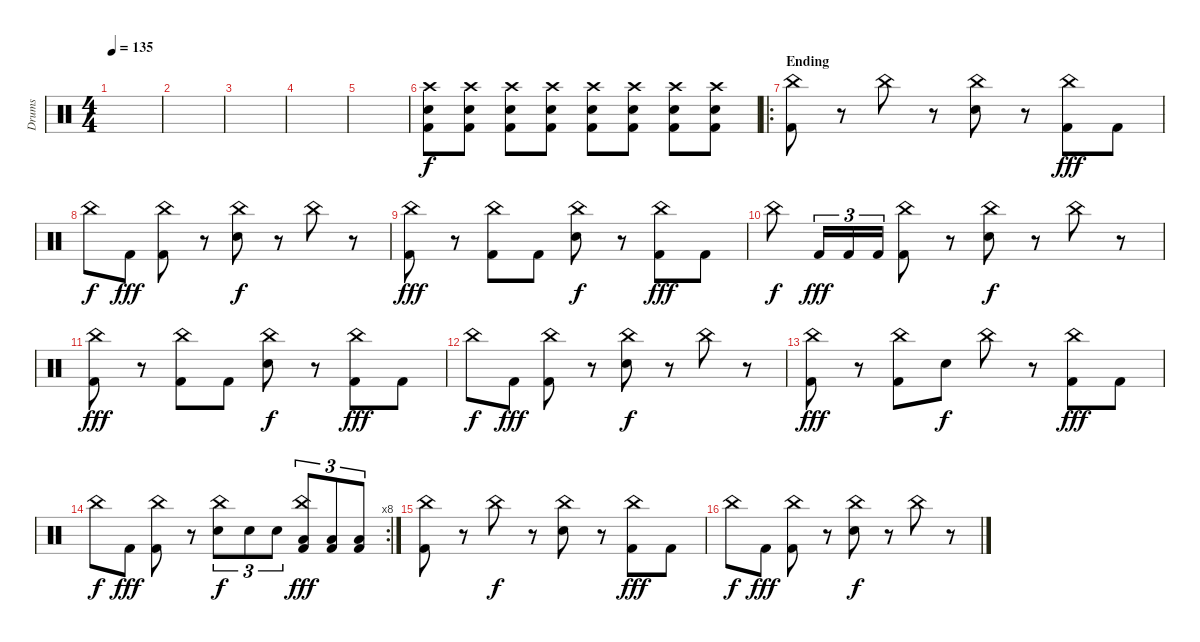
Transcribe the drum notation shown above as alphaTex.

\track ("Drums" "Drums") {instrument percussion}
\staff {score}
\articulation defaults
\ts (4 4)
\tempo 135
\clef neutral
\ks c
|
|
|
|
|
("Crash high (hit)" "Snare (hit) 2" "Kick (hit) 2").8{volume 14} ("Crash high (hit)" "Snare (hit) 2" "Kick (hit) 2").8 ("Crash high (hit)" "Snare (hit) 2" "Kick (hit) 2").8 ("Crash high (hit)" "Snare (hit) 2" "Kick (hit) 2").8 ("Crash high (hit)" "Snare (hit) 2" "Kick (hit) 2").8 ("Crash high (hit)" "Snare (hit) 2" "Kick (hit) 2").8 ("Crash high (hit)" "Snare (hit) 2" "Kick (hit) 2").8 ("Crash high (hit)" "Snare (hit) 2" "Kick (hit) 2").8 |
\ro
\section ("" "Ending")
("China (hit)" "Kick (hit) 2").8 r.8 "China (hit)".8{dy f} r.8 ("China (hit)" "Snare (hit) 2").8 r.8 ("China (hit)" "Kick (hit) 2").8{dy fff} "Kick (hit) 2".8 |
"China (hit)".8{dy f} "Kick (hit) 2".8{dy fff} ("China (hit)" "Kick (hit) 2").8 r.8 ("China (hit)" "Snare (hit) 2").8{dy f} r.8 "China (hit)".8 r.8 |
("China (hit)" "Kick (hit) 2").8{dy fff} r.8 ("China (hit)" "Kick (hit) 2").8 "Kick (hit) 2".8 ("China (hit)" "Snare (hit) 2").8{dy f} r.8 ("China (hit)" "Kick (hit) 2").8{dy fff} "Kick (hit) 2".8 |
"China (hit)".8{dy f} "Kick (hit) 2".16{tu (3 2) dy fff} "Kick (hit) 2".16{tu (3 2)} "Kick (hit) 2".16{tu (3 2)} ("China (hit)" "Kick (hit) 2").8 r.8 ("China (hit)" "Snare (hit) 2").8{dy f} r.8 "China (hit)".8 r.8 |
("China (hit)" "Kick (hit) 2").8{dy fff} r.8 ("China (hit)" "Kick (hit) 2").8 "Kick (hit) 2".8 ("China (hit)" "Snare (hit) 2").8{dy f} r.8 ("China (hit)" "Kick (hit) 2").8{dy fff} "Kick (hit) 2".8 |
"China (hit)".8{dy f} "Kick (hit) 2".8{dy fff} ("China (hit)" "Kick (hit) 2").8 r.8 ("China (hit)" "Snare (hit) 2").8{dy f} r.8 "China (hit)".8 r.8 |
("China (hit)" "Kick (hit) 2").8{dy fff} r.8 ("China (hit)" "Kick (hit) 2").8 "Snare (hit) 2".8{dy f} "China (hit)".8 r.8 ("China (hit)" "Kick (hit) 2").8{dy fff} "Kick (hit) 2".8 |
\rc 8 "China (hit)".8{dy f} "Kick (hit) 2".8{dy fff}
("China (hit)" "Kick (hit) 2").8 r.8 ("China (hit)" "Snare (hit) 2").8{tu (3 2) dy f} "Snare (hit) 2".8{tu (3 2)} "Snare (hit) 2".8{tu (3 2)} ("China (hit)" "Low Tom (hit)" "Kick (hit) 2").8{tu (3 2) dy fff} ("Low Tom (hit)" "Kick (hit) 2").8{tu (3 2)} ("Low Tom (hit)" "Kick (hit) 2").8{tu (3 2)} |
("China (hit)" "Kick (hit) 2").8 r.8 "China (hit)".8{dy f} r.8 ("China (hit)" "Snare (hit) 2").8 r.8 ("China (hit)" "Kick (hit) 2").8{dy fff} "Kick (hit) 2".8 |
"China (hit)".8{dy f} "Kick (hit) 2".8{dy fff} ("China (hit)" "Kick (hit) 2").8 r.8 ("China (hit)" "Snare (hit) 2").8{dy f} r.8 "China (hit)".8 r.8
